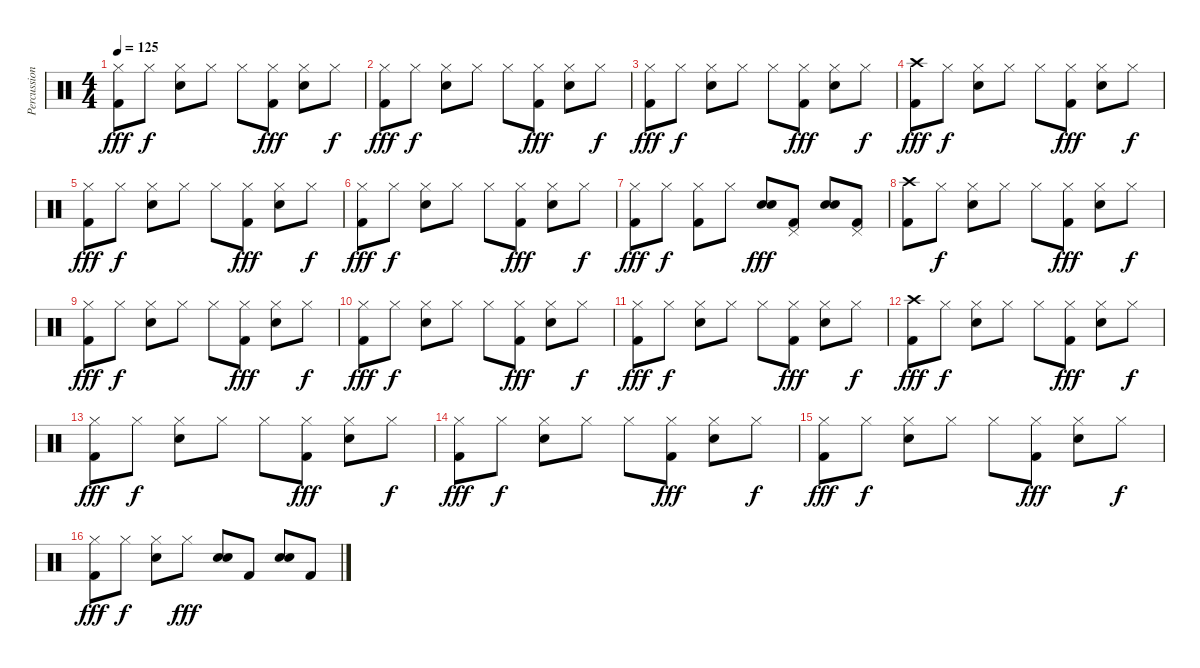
\track ("Percussions" "Percussion") {instrument percussion}
\staff {score}
\articulation defaults
\ts (4 4)
\tempo 125
\clef neutral
\ks c
("Hi-Hat (closed)" "Kick (hit) 2").8{dy fff} "Hi-Hat (closed)".8{dy f} ("Electric Snare (hit)" "Hi-Hat (closed)").8 "Hi-Hat (closed)".8 "Hi-Hat (closed)".8 ("Hi-Hat (closed)" "Kick (hit) 2").8{dy fff} ("Hi-Hat (closed)" "Electric Snare (hit)").8 "Hi-Hat (closed)".8{dy f} |
("Hi-Hat (closed)" "Kick (hit) 2").8{dy fff} "Hi-Hat (closed)".8{dy f} ("Electric Snare (hit)" "Hi-Hat (closed)").8 "Hi-Hat (closed)".8 "Hi-Hat (closed)".8 ("Hi-Hat (closed)" "Kick (hit) 2").8{dy fff} ("Hi-Hat (closed)" "Electric Snare (hit)").8 "Hi-Hat (closed)".8{dy f} |
("Hi-Hat (closed)" "Kick (hit) 2").8{dy fff} "Hi-Hat (closed)".8{dy f} ("Electric Snare (hit)" "Hi-Hat (closed)").8 "Hi-Hat (closed)".8 "Hi-Hat (closed)".8 ("Hi-Hat (closed)" "Kick (hit) 2").8{dy fff} ("Hi-Hat (closed)" "Electric Snare (hit)").8 "Hi-Hat (closed)".8{dy f} |
("Crash high (hit)" "Kick (hit) 2").8{dy fff} "Hi-Hat (closed)".8{dy f} ("Electric Snare (hit)" "Hi-Hat (closed)").8 "Hi-Hat (closed)".8 "Hi-Hat (closed)".8 ("Hi-Hat (closed)" "Kick (hit) 2").8{dy fff} ("Hi-Hat (closed)" "Electric Snare (hit)").8 "Hi-Hat (closed)".8{dy f} |
("Hi-Hat (closed)" "Kick (hit) 2").8{dy fff} "Hi-Hat (closed)".8{dy f} ("Electric Snare (hit)" "Hi-Hat (closed)").8 "Hi-Hat (closed)".8 "Hi-Hat (closed)".8 ("Hi-Hat (closed)" "Kick (hit) 2").8{dy fff} ("Hi-Hat (closed)" "Electric Snare (hit)").8 "Hi-Hat (closed)".8{dy f} |
("Hi-Hat (closed)" "Kick (hit) 2").8{dy fff} "Hi-Hat (closed)".8{dy f} ("Electric Snare (hit)" "Hi-Hat (closed)").8 "Hi-Hat (closed)".8 "Hi-Hat (closed)".8 ("Hi-Hat (closed)" "Kick (hit) 2").8{dy fff} ("Hi-Hat (closed)" "Electric Snare (hit)").8 "Hi-Hat (closed)".8{dy f} |
("Hi-Hat (closed)" "Kick (hit) 2").8{dy fff} "Hi-Hat (closed)".8{dy f} ("Kick (hit) 2" "Hi-Hat (closed)").8 "Hi-Hat (closed)".8 ("Electric Snare (hit)" "Electric Snare (hit)").8{bd 120 dy fff} ("Pedal Hi-Hat (hit)" "Kick (hit) 2").8 ("Electric Snare (hit)" "Electric Snare (hit)").8{bd 120} ("Pedal Hi-Hat (hit)" "Kick (hit) 2").8 |
("Crash high (hit)" "Kick (hit) 2").8 "Hi-Hat (closed)".8{dy f} ("Electric Snare (hit)" "Hi-Hat (closed)").8 "Hi-Hat (closed)".8 "Hi-Hat (closed)".8 ("Hi-Hat (closed)" "Kick (hit) 2").8{dy fff} ("Hi-Hat (closed)" "Electric Snare (hit)").8 "Hi-Hat (closed)".8{dy f} |
("Hi-Hat (closed)" "Kick (hit) 2").8{dy fff} "Hi-Hat (closed)".8{dy f} ("Electric Snare (hit)" "Hi-Hat (closed)").8 "Hi-Hat (closed)".8 "Hi-Hat (closed)".8 ("Hi-Hat (closed)" "Kick (hit) 2").8{dy fff} ("Hi-Hat (closed)" "Electric Snare (hit)").8 "Hi-Hat (closed)".8{dy f} |
("Hi-Hat (closed)" "Kick (hit) 2").8{dy fff} "Hi-Hat (closed)".8{dy f} ("Electric Snare (hit)" "Hi-Hat (closed)").8 "Hi-Hat (closed)".8 "Hi-Hat (closed)".8 ("Hi-Hat (closed)" "Kick (hit) 2").8{dy fff} ("Hi-Hat (closed)" "Electric Snare (hit)").8 "Hi-Hat (closed)".8{dy f} |
("Hi-Hat (closed)" "Kick (hit) 2").8{dy fff} "Hi-Hat (closed)".8{dy f} ("Electric Snare (hit)" "Hi-Hat (closed)").8 "Hi-Hat (closed)".8 "Hi-Hat (closed)".8 ("Hi-Hat (closed)" "Kick (hit) 2").8{dy fff} ("Hi-Hat (closed)" "Electric Snare (hit)").8 "Hi-Hat (closed)".8{dy f} |
("Crash high (hit)" "Kick (hit) 2").8{dy fff} "Hi-Hat (closed)".8{dy f} ("Electric Snare (hit)" "Hi-Hat (closed)").8 "Hi-Hat (closed)".8 "Hi-Hat (closed)".8 ("Hi-Hat (closed)" "Kick (hit) 2").8{dy fff} ("Hi-Hat (closed)" "Electric Snare (hit)").8 "Hi-Hat (closed)".8{dy f} |
("Hi-Hat (closed)" "Kick (hit) 2").8{dy fff} "Hi-Hat (closed)".8{dy f} ("Electric Snare (hit)" "Hi-Hat (closed)").8 "Hi-Hat (closed)".8 "Hi-Hat (closed)".8 ("Hi-Hat (closed)" "Kick (hit) 2").8{dy fff} ("Hi-Hat (closed)" "Electric Snare (hit)").8 "Hi-Hat (closed)".8{dy f} |
("Hi-Hat (closed)" "Kick (hit) 2").8{dy fff} "Hi-Hat (closed)".8{dy f} ("Electric Snare (hit)" "Hi-Hat (closed)").8 "Hi-Hat (closed)".8 "Hi-Hat (closed)".8 ("Hi-Hat (closed)" "Kick (hit) 2").8{dy fff} ("Hi-Hat (closed)" "Electric Snare (hit)").8 "Hi-Hat (closed)".8{dy f} |
("Hi-Hat (closed)" "Kick (hit) 2").8{dy fff} "Hi-Hat (closed)".8{dy f} ("Electric Snare (hit)" "Hi-Hat (closed)").8 "Hi-Hat (closed)".8 "Hi-Hat (closed)".8 ("Hi-Hat (closed)" "Kick (hit) 2").8{dy fff} ("Hi-Hat (closed)" "Electric Snare (hit)").8 "Hi-Hat (closed)".8{dy f} |
("Hi-Hat (closed)" "Kick (hit) 2").8{dy fff} "Hi-Hat (closed)".8{dy f} ("Electric Snare (hit)" "Hi-Hat (closed)").8 "Hi-Hat (closed)".8{dy fff} ("Electric Snare (hit)" "Electric Snare (hit)").8{bd 120} "Kick (hit) 2".8 ("Electric Snare (hit)" "Electric Snare (hit)").8{bd 120} "Kick (hit) 2".8
